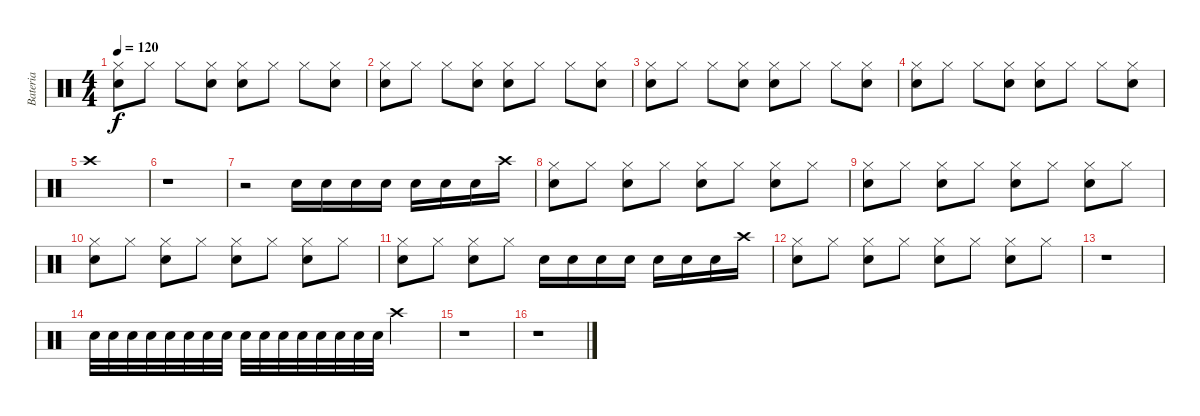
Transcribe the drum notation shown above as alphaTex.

\track ("Bateria" "Bateria") {instrument percussion}
\staff {score}
\articulation defaults
\ts (4 4)
\tempo 120
\clef neutral
\ks c
("Hi-Hat (closed)" "Snare (hit) 2").8{dy f} "Hi-Hat (closed)".8 "Hi-Hat (closed)".8 ("Hi-Hat (closed)" "Snare (hit) 2").8 ("Hi-Hat (closed)" "Snare (hit) 2").8 "Hi-Hat (closed)".8 "Hi-Hat (closed)".8 ("Hi-Hat (closed)" "Snare (hit) 2").8 |
("Hi-Hat (closed)" "Snare (hit) 2").8 "Hi-Hat (closed)".8 "Hi-Hat (closed)".8 ("Hi-Hat (closed)" "Snare (hit) 2").8 ("Hi-Hat (closed)" "Snare (hit) 2").8 "Hi-Hat (closed)".8 "Hi-Hat (closed)".8 ("Hi-Hat (closed)" "Snare (hit) 2").8 |
("Hi-Hat (closed)" "Snare (hit) 2").8 "Hi-Hat (closed)".8 "Hi-Hat (closed)".8 ("Hi-Hat (closed)" "Snare (hit) 2").8 ("Hi-Hat (closed)" "Snare (hit) 2").8 "Hi-Hat (closed)".8 "Hi-Hat (closed)".8 ("Hi-Hat (closed)" "Snare (hit) 2").8 |
("Hi-Hat (closed)" "Snare (hit) 2").8 "Hi-Hat (closed)".8 "Hi-Hat (closed)".8 ("Hi-Hat (closed)" "Snare (hit) 2").8 ("Hi-Hat (closed)" "Snare (hit) 2").8 "Hi-Hat (closed)".8 "Hi-Hat (closed)".8 ("Hi-Hat (closed)" "Snare (hit) 2").8 |
"Crash high (hit)".1 |
r.1 |
r.2 "Snare (hit) 2".16 "Snare (hit) 2".16 "Snare (hit) 2".16 "Snare (hit) 2".16 "Snare (hit) 2".16 "Snare (hit) 2".16 "Snare (hit) 2".16 "Crash high (hit)".16 |
("Hi-Hat (closed)" "Snare (hit) 2").8 "Hi-Hat (closed)".8 ("Hi-Hat (closed)" "Snare (hit) 2").8 "Hi-Hat (closed)".8 ("Hi-Hat (closed)" "Snare (hit) 2").8 "Hi-Hat (closed)".8 ("Hi-Hat (closed)" "Snare (hit) 2").8 "Hi-Hat (closed)".8 |
("Hi-Hat (closed)" "Snare (hit) 2").8 "Hi-Hat (closed)".8 ("Hi-Hat (closed)" "Snare (hit) 2").8 "Hi-Hat (closed)".8 ("Hi-Hat (closed)" "Snare (hit) 2").8 "Hi-Hat (closed)".8 ("Hi-Hat (closed)" "Snare (hit) 2").8 "Hi-Hat (closed)".8 |
("Hi-Hat (closed)" "Snare (hit) 2").8 "Hi-Hat (closed)".8 ("Hi-Hat (closed)" "Snare (hit) 2").8 "Hi-Hat (closed)".8 ("Hi-Hat (closed)" "Snare (hit) 2").8 "Hi-Hat (closed)".8 ("Hi-Hat (closed)" "Snare (hit) 2").8 "Hi-Hat (closed)".8 |
("Hi-Hat (closed)" "Snare (hit) 2").8 "Hi-Hat (closed)".8 ("Hi-Hat (closed)" "Snare (hit) 2").8 "Hi-Hat (closed)".8 "Snare (hit) 2".16 "Snare (hit) 2".16 "Snare (hit) 2".16 "Snare (hit) 2".16 "Snare (hit) 2".16 "Snare (hit) 2".16 "Snare (hit) 2".16 "Crash high (hit)".16 |
("Hi-Hat (closed)" "Snare (hit) 2").8 "Hi-Hat (closed)".8 ("Hi-Hat (closed)" "Snare (hit) 2").8 "Hi-Hat (closed)".8 ("Hi-Hat (closed)" "Snare (hit) 2").8 "Hi-Hat (closed)".8 ("Hi-Hat (closed)" "Snare (hit) 2").8 "Hi-Hat (closed)".8 |
r.1 |
"Snare (hit) 2".32 "Snare (hit) 2".32 "Snare (hit) 2".32 "Snare (hit) 2".32 "Snare (hit) 2".32 "Snare (hit) 2".32 "Snare (hit) 2".32 "Snare (hit) 2".32 "Snare (hit) 2".32 "Snare (hit) 2".32 "Snare (hit) 2".32 "Snare (hit) 2".32 "Snare (hit) 2".32 "Snare (hit) 2".32 "Snare (hit) 2".32 "Snare (hit) 2".32 "Crash high (hit)".2 |
r.1 |
r.1
